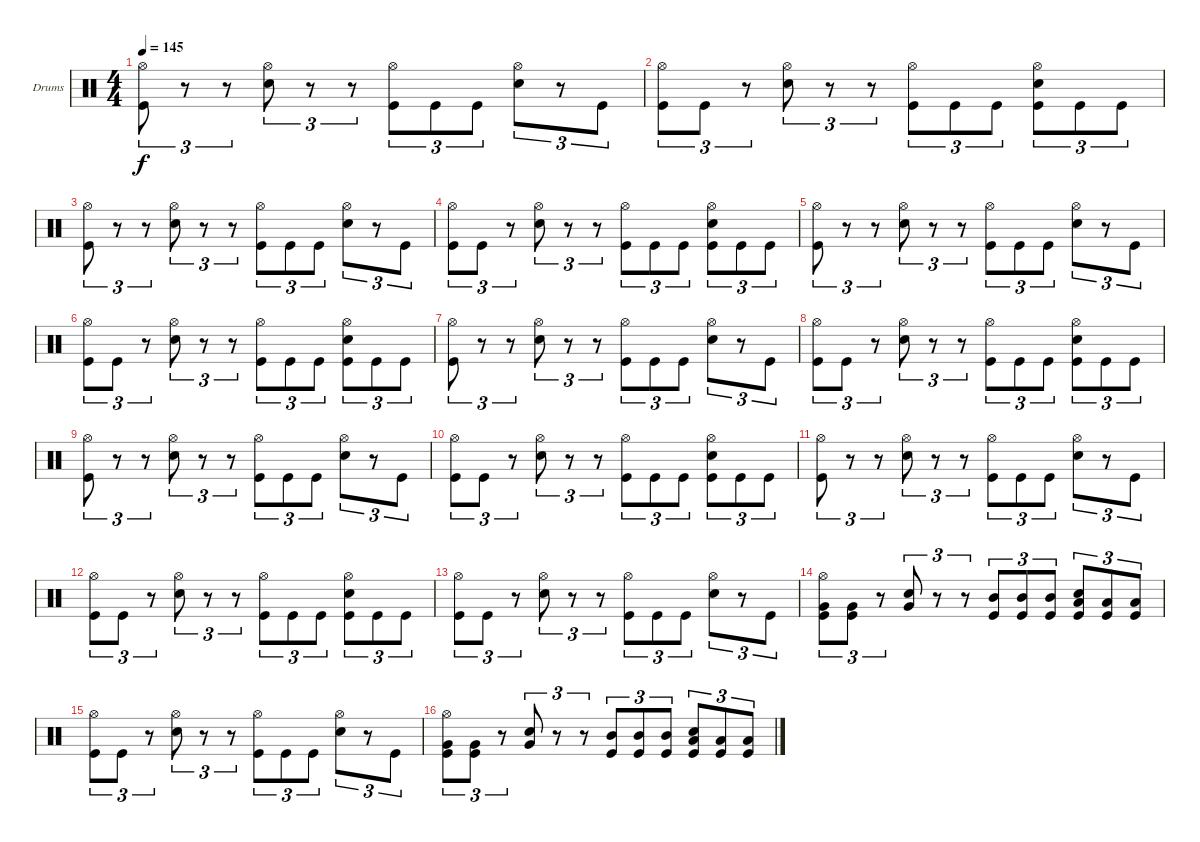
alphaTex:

\bracketExtendMode groupsimilarinstruments
\firstSystemTrackNameOrientation horizontal
\otherSystemsTrackNameOrientation horizontal
\track ("FREDRIK ANDERSSON" "Drums") {instrument percussion}
\staff {score}
\articulation defaults
\ts (4 4)
\tempo 145
\clef neutral
\ks c
("Hi-Hat (open)" "Kick (hit)").8{tu (3 2) dy f} r.8{tu (3 2)} r.8{tu (3 2)} ("Hi-Hat (open)" "Snare (hit) 2").8{tu (3 2)} r.8{tu (3 2)} r.8{tu (3 2)} ("Hi-Hat (open)" "Kick (hit)").8{tu (3 2)} "Kick (hit)".8{tu (3 2)} "Kick (hit)".8{tu (3 2)} ("Hi-Hat (open)" "Snare (hit) 2").8{tu (3 2)} r.8{tu (3 2)} "Kick (hit)".8{tu (3 2)} |
("Hi-Hat (open)" "Kick (hit)").8{tu (3 2)} "Kick (hit)".8{tu (3 2)} r.8{tu (3 2)} ("Hi-Hat (open)" "Snare (hit) 2").8{tu (3 2)} r.8{tu (3 2)} r.8{tu (3 2)} ("Hi-Hat (open)" "Kick (hit)").8{tu (3 2)} "Kick (hit)".8{tu (3 2)} "Kick (hit)".8{tu (3 2)} ("Hi-Hat (open)" "Snare (hit) 2" "Kick (hit)").8{tu (3 2)} "Kick (hit)".8{tu (3 2)} "Kick (hit)".8{tu (3 2)} |
("Hi-Hat (open)" "Kick (hit)").8{tu (3 2)} r.8{tu (3 2)} r.8{tu (3 2)} ("Hi-Hat (open)" "Snare (hit) 2").8{tu (3 2)} r.8{tu (3 2)} r.8{tu (3 2)} ("Hi-Hat (open)" "Kick (hit)").8{tu (3 2)} "Kick (hit)".8{tu (3 2)} "Kick (hit)".8{tu (3 2)} ("Hi-Hat (open)" "Snare (hit) 2").8{tu (3 2)} r.8{tu (3 2)} "Kick (hit)".8{tu (3 2)} |
("Hi-Hat (open)" "Kick (hit)").8{tu (3 2)} "Kick (hit)".8{tu (3 2)} r.8{tu (3 2)} ("Hi-Hat (open)" "Snare (hit) 2").8{tu (3 2)} r.8{tu (3 2)} r.8{tu (3 2)} ("Hi-Hat (open)" "Kick (hit)").8{tu (3 2)} "Kick (hit)".8{tu (3 2)} "Kick (hit)".8{tu (3 2)} ("Hi-Hat (open)" "Snare (hit) 2" "Kick (hit)").8{tu (3 2)} "Kick (hit)".8{tu (3 2)} "Kick (hit)".8{tu (3 2)} |
("Hi-Hat (open)" "Kick (hit)").8{tu (3 2)} r.8{tu (3 2)} r.8{tu (3 2)} ("Hi-Hat (open)" "Snare (hit) 2").8{tu (3 2)} r.8{tu (3 2)} r.8{tu (3 2)} ("Hi-Hat (open)" "Kick (hit)").8{tu (3 2)} "Kick (hit)".8{tu (3 2)} "Kick (hit)".8{tu (3 2)} ("Hi-Hat (open)" "Snare (hit) 2").8{tu (3 2)} r.8{tu (3 2)} "Kick (hit)".8{tu (3 2)} |
("Hi-Hat (open)" "Kick (hit)").8{tu (3 2)} "Kick (hit)".8{tu (3 2)} r.8{tu (3 2)} ("Hi-Hat (open)" "Snare (hit) 2").8{tu (3 2)} r.8{tu (3 2)} r.8{tu (3 2)} ("Hi-Hat (open)" "Kick (hit)").8{tu (3 2)} "Kick (hit)".8{tu (3 2)} "Kick (hit)".8{tu (3 2)} ("Hi-Hat (open)" "Snare (hit) 2" "Kick (hit)").8{tu (3 2)} "Kick (hit)".8{tu (3 2)} "Kick (hit)".8{tu (3 2)} |
("Hi-Hat (open)" "Kick (hit)").8{tu (3 2)} r.8{tu (3 2)} r.8{tu (3 2)} ("Hi-Hat (open)" "Snare (hit) 2").8{tu (3 2)} r.8{tu (3 2)} r.8{tu (3 2)} ("Hi-Hat (open)" "Kick (hit)").8{tu (3 2)} "Kick (hit)".8{tu (3 2)} "Kick (hit)".8{tu (3 2)} ("Hi-Hat (open)" "Snare (hit) 2").8{tu (3 2)} r.8{tu (3 2)} "Kick (hit)".8{tu (3 2)} |
("Hi-Hat (open)" "Kick (hit)").8{tu (3 2)} "Kick (hit)".8{tu (3 2)} r.8{tu (3 2)} ("Hi-Hat (open)" "Snare (hit) 2").8{tu (3 2)} r.8{tu (3 2)} r.8{tu (3 2)} ("Hi-Hat (open)" "Kick (hit)").8{tu (3 2)} "Kick (hit)".8{tu (3 2)} "Kick (hit)".8{tu (3 2)} ("Hi-Hat (open)" "Snare (hit) 2" "Kick (hit)").8{tu (3 2)} "Kick (hit)".8{tu (3 2)} "Kick (hit)".8{tu (3 2)} |
("Hi-Hat (open)" "Kick (hit)").8{tu (3 2)} r.8{tu (3 2)} r.8{tu (3 2)} ("Hi-Hat (open)" "Snare (hit) 2").8{tu (3 2)} r.8{tu (3 2)} r.8{tu (3 2)} ("Hi-Hat (open)" "Kick (hit)").8{tu (3 2)} "Kick (hit)".8{tu (3 2)} "Kick (hit)".8{tu (3 2)} ("Hi-Hat (open)" "Snare (hit) 2").8{tu (3 2)} r.8{tu (3 2)} "Kick (hit)".8{tu (3 2)} |
("Hi-Hat (open)" "Kick (hit)").8{tu (3 2)} "Kick (hit)".8{tu (3 2)} r.8{tu (3 2)} ("Hi-Hat (open)" "Snare (hit) 2").8{tu (3 2)} r.8{tu (3 2)} r.8{tu (3 2)} ("Hi-Hat (open)" "Kick (hit)").8{tu (3 2)} "Kick (hit)".8{tu (3 2)} "Kick (hit)".8{tu (3 2)} ("Hi-Hat (open)" "Snare (hit) 2" "Kick (hit)").8{tu (3 2)} "Kick (hit)".8{tu (3 2)} "Kick (hit)".8{tu (3 2)} |
("Hi-Hat (open)" "Kick (hit)").8{tu (3 2)} r.8{tu (3 2)} r.8{tu (3 2)} ("Hi-Hat (open)" "Snare (hit) 2").8{tu (3 2)} r.8{tu (3 2)} r.8{tu (3 2)} ("Hi-Hat (open)" "Kick (hit)").8{tu (3 2)} "Kick (hit)".8{tu (3 2)} "Kick (hit)".8{tu (3 2)} ("Hi-Hat (open)" "Snare (hit) 2").8{tu (3 2)} r.8{tu (3 2)} "Kick (hit)".8{tu (3 2)} |
("Hi-Hat (open)" "Kick (hit)").8{tu (3 2)} "Kick (hit)".8{tu (3 2)} r.8{tu (3 2)} ("Hi-Hat (open)" "Snare (hit) 2").8{tu (3 2)} r.8{tu (3 2)} r.8{tu (3 2)} ("Hi-Hat (open)" "Kick (hit)").8{tu (3 2)} "Kick (hit)".8{tu (3 2)} "Kick (hit)".8{tu (3 2)} ("Hi-Hat (open)" "Snare (hit) 2" "Kick (hit)").8{tu (3 2)} "Kick (hit)".8{tu (3 2)} "Kick (hit)".8{tu (3 2)} |
("Hi-Hat (open)" "Kick (hit)").8{tu (3 2)} "Kick (hit)".8{tu (3 2)} r.8{tu (3 2)} ("Hi-Hat (open)" "Snare (hit) 2").8{tu (3 2)} r.8{tu (3 2)} r.8{tu (3 2)} ("Hi-Hat (open)" "Kick (hit)").8{tu (3 2)} "Kick (hit)".8{tu (3 2)} "Kick (hit)".8{tu (3 2)} ("Hi-Hat (open)" "Snare (hit) 2").8{tu (3 2)} r.8{tu (3 2)} "Kick (hit)".8{tu (3 2)} |
("Hi-Hat (open)" "Kick (hit)" "Very Low Tom (hit)").8{tu (3 2)} ("Kick (hit)" "Very Low Tom (hit)").8{tu (3 2)} r.8{tu (3 2)} ("Snare (hit) 2" "Very Low Tom (hit)").8{tu (3 2)} r.8{tu (3 2)} r.8{tu (3 2)} ("Kick (hit)" "Mid Tom (hit)").8{tu (3 2)} ("Kick (hit)" "Mid Tom (hit)").8{tu (3 2)} ("Kick (hit)" "Mid Tom (hit)").8{tu (3 2)} ("Snare (hit) 2" "Kick (hit)" "Low Tom (hit)").8{tu (3 2)} ("Kick (hit)" "Low Tom (hit)").8{tu (3 2)} ("Kick (hit)" "Low Tom (hit)").8{tu (3 2)} |
("Hi-Hat (open)" "Kick (hit)").8{tu (3 2)} "Kick (hit)".8{tu (3 2)} r.8{tu (3 2)} ("Hi-Hat (open)" "Snare (hit) 2").8{tu (3 2)} r.8{tu (3 2)} r.8{tu (3 2)} ("Hi-Hat (open)" "Kick (hit)").8{tu (3 2)} "Kick (hit)".8{tu (3 2)} "Kick (hit)".8{tu (3 2)} ("Hi-Hat (open)" "Snare (hit) 2").8{tu (3 2)} r.8{tu (3 2)} "Kick (hit)".8{tu (3 2)} |
("Hi-Hat (open)" "Kick (hit)" "Very Low Tom (hit)").8{tu (3 2)} ("Kick (hit)" "Very Low Tom (hit)").8{tu (3 2)} r.8{tu (3 2)} ("Snare (hit) 2" "Very Low Tom (hit)").8{tu (3 2)} r.8{tu (3 2)} r.8{tu (3 2)} ("Kick (hit)" "Mid Tom (hit)").8{tu (3 2)} ("Kick (hit)" "Mid Tom (hit)").8{tu (3 2)} ("Kick (hit)" "Mid Tom (hit)").8{tu (3 2)} ("Snare (hit) 2" "Kick (hit)" "Low Tom (hit)").8{tu (3 2)} ("Kick (hit)" "Low Tom (hit)").8{tu (3 2)} ("Kick (hit)" "Low Tom (hit)").8{tu (3 2)}
